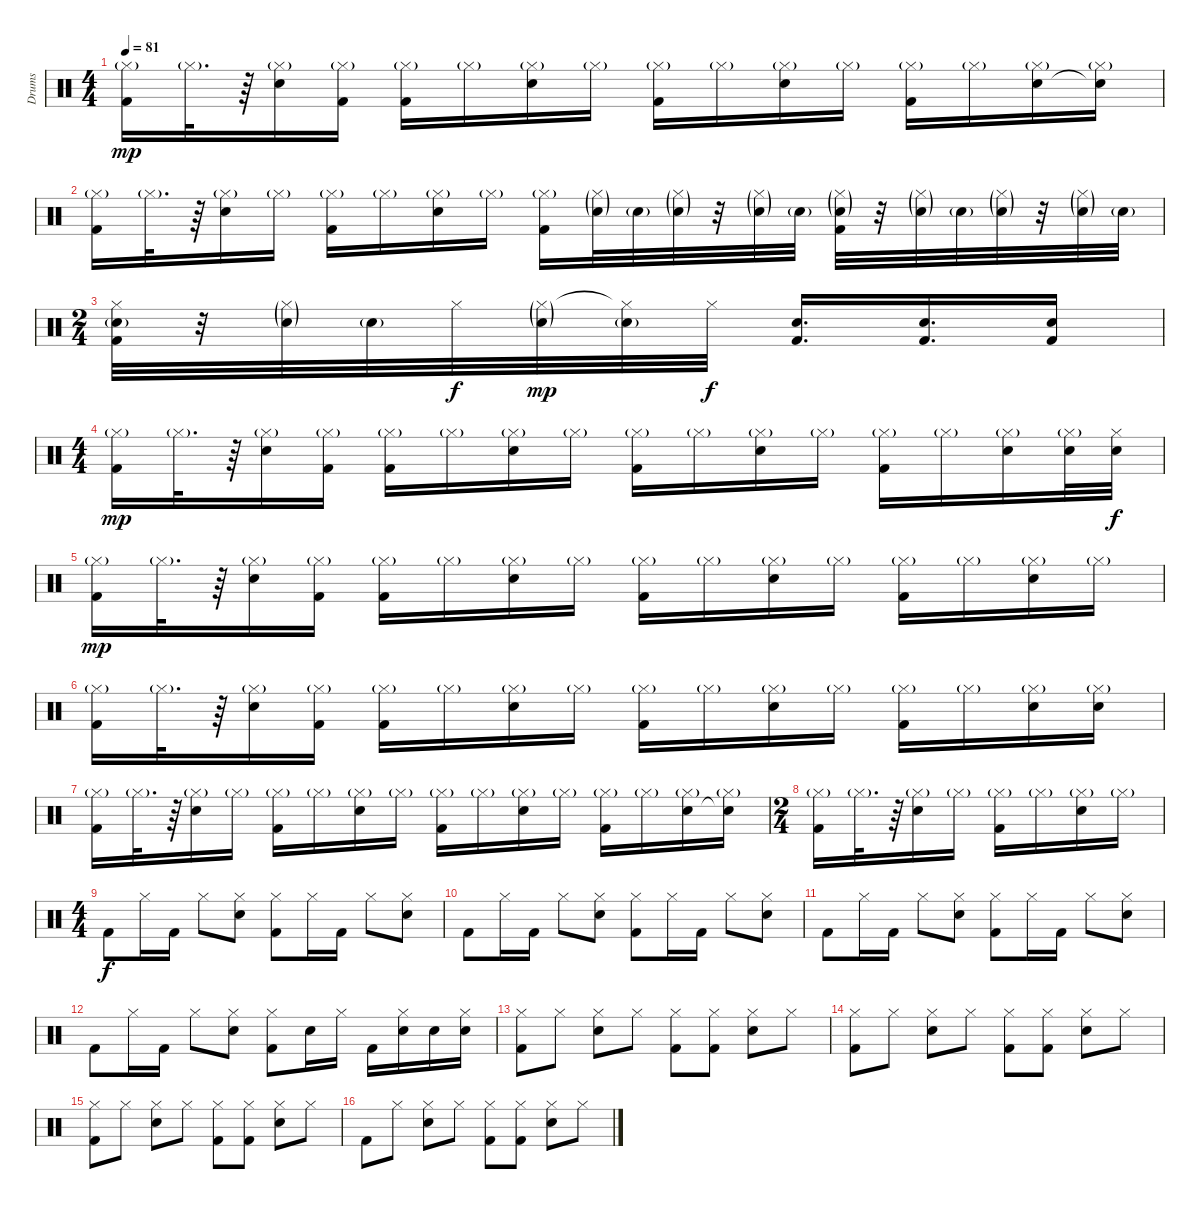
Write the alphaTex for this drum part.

\track ("Drums" "Drums") {instrument percussion}
\staff {score}
\articulation defaults
\ts (4 4)
\tempo 81
\clef neutral
\ks c
("Hi-Hat (closed)"{g} "Kick (hit) 2").16{dy mp} "Hi-Hat (closed)"{g}.32{d} r.64 ("Hi-Hat (closed)"{g} "Snare (hit) 2").16 ("Hi-Hat (closed)"{g} "Kick (hit) 2").16 ("Hi-Hat (closed)"{g} "Kick (hit) 2").16 "Hi-Hat (closed)"{g}.16 ("Hi-Hat (closed)"{g} "Snare (hit) 2").16 "Hi-Hat (closed)"{g}.16 ("Hi-Hat (closed)"{g} "Kick (hit) 2").16 "Hi-Hat (closed)"{g}.16 ("Hi-Hat (closed)"{g} "Snare (hit) 2").16 "Hi-Hat (closed)"{g}.16 ("Hi-Hat (closed)"{g} "Kick (hit) 2").16 "Hi-Hat (closed)"{g}.16 ("Hi-Hat (closed)"{g} "Snare (hit) 2").16 ("Hi-Hat (closed)"{g} "Snare (hit)"{t}).16 |
("Hi-Hat (closed)"{g} "Kick (hit) 2").16 "Hi-Hat (closed)"{g}.32{d} r.64 ("Hi-Hat (closed)"{g} "Snare (hit) 2").16 "Hi-Hat (closed)"{g}.16 ("Hi-Hat (closed)"{g} "Kick (hit) 2").16 "Hi-Hat (closed)"{g}.16 ("Hi-Hat (closed)"{g} "Snare (hit) 2").16 "Hi-Hat (closed)"{g}.16 ("Hi-Hat (closed)"{g} "Kick (hit) 2").16 ("Hi-Hat (closed)"{g} "Snare (hit) 2"{g}).32 "Snare (hit) 2"{g}.32 ("Hi-Hat (closed)"{g} "Snare (hit) 2"{g}).32 r.32 ("Hi-Hat (closed)"{g} "Snare (hit) 2"{g}).32 "Snare (hit) 2"{g}.32 ("Hi-Hat (closed)"{g} "Snare (hit) 2"{g} "Kick (hit) 2").32 r.32 ("Hi-Hat (closed)"{g} "Snare (hit) 2"{g}).32 "Snare (hit) 2"{g}.32 ("Hi-Hat (closed)"{g} "Snare (hit) 2"{g}).32 r.32 ("Hi-Hat (closed)"{g} "Snare (hit) 2"{g}).32 "Snare (hit) 2"{g}.32 |
\ts (2 4)
("Hi-Hat (closed)" "Snare (hit) 2"{g} "Kick (hit) 2").32 r.32 ("Hi-Hat (closed)"{g} "Snare (hit) 2"{g}).32 "Snare (hit) 2"{g}.32 "Hi-Hat (closed)".32{dy f} ("Hi-Hat (closed)"{g} "Snare (hit) 2"{g}).32{dy mp} ("Hi-Hat (closed)"{t} "Snare (hit) 2"{g}).32 "Hi-Hat (closed)".32{dy f} ("Snare (hit) 2" "Kick (hit) 2").16{d} ("Snare (hit) 2" "Kick (hit) 2").16{d} ("Snare (hit) 2" "Kick (hit) 2").16 |
\ts (4 4)
("Hi-Hat (closed)"{g} "Kick (hit) 2").16{dy mp} "Hi-Hat (closed)"{g}.32{d} r.64 ("Hi-Hat (closed)"{g} "Snare (hit) 2").16 ("Hi-Hat (closed)"{g} "Kick (hit) 2").16 ("Hi-Hat (closed)"{g} "Kick (hit) 2").16 "Hi-Hat (closed)"{g}.16 ("Hi-Hat (closed)"{g} "Snare (hit) 2").16 "Hi-Hat (closed)"{g}.16 ("Hi-Hat (closed)"{g} "Kick (hit) 2").16 "Hi-Hat (closed)"{g}.16 ("Hi-Hat (closed)"{g} "Snare (hit) 2").16 "Hi-Hat (closed)"{g}.16 ("Hi-Hat (closed)"{g} "Kick (hit) 2").16 "Hi-Hat (closed)"{g}.16 ("Hi-Hat (closed)"{g} "Snare (hit) 2").16 ("Hi-Hat (closed)"{g} "Snare (hit) 2").32 ("Hi-Hat (closed)" "Snare (hit) 2").32{dy f} |
("Hi-Hat (closed)"{g} "Kick (hit) 2").16{dy mp} "Hi-Hat (closed)"{g}.32{d} r.64 ("Hi-Hat (closed)"{g} "Snare (hit) 2").16 ("Hi-Hat (closed)"{g} "Kick (hit) 2").16 ("Hi-Hat (closed)"{g} "Kick (hit) 2").16 "Hi-Hat (closed)"{g}.16 ("Hi-Hat (closed)"{g} "Snare (hit) 2").16 "Hi-Hat (closed)"{g}.16 ("Hi-Hat (closed)"{g} "Kick (hit) 2").16 "Hi-Hat (closed)"{g}.16 ("Hi-Hat (closed)"{g} "Snare (hit) 2").16 "Hi-Hat (closed)"{g}.16 ("Hi-Hat (closed)"{g} "Kick (hit) 2").16 "Hi-Hat (closed)"{g}.16 ("Hi-Hat (closed)"{g} "Snare (hit) 2").16 "Hi-Hat (closed)"{g}.16 |
("Hi-Hat (closed)"{g} "Kick (hit) 2").16 "Hi-Hat (closed)"{g}.32{d} r.64 ("Hi-Hat (closed)"{g} "Snare (hit) 2").16 ("Hi-Hat (closed)"{g} "Kick (hit) 2").16 ("Hi-Hat (closed)"{g} "Kick (hit) 2").16 "Hi-Hat (closed)"{g}.16 ("Hi-Hat (closed)"{g} "Snare (hit) 2").16 "Hi-Hat (closed)"{g}.16 ("Hi-Hat (closed)"{g} "Kick (hit) 2").16 "Hi-Hat (closed)"{g}.16 ("Hi-Hat (closed)"{g} "Snare (hit) 2").16 "Hi-Hat (closed)"{g}.16 ("Hi-Hat (closed)"{g} "Kick (hit) 2").16 "Hi-Hat (closed)"{g}.16 ("Hi-Hat (closed)"{g} "Snare (hit) 2").16 ("Hi-Hat (closed)"{g} "Snare (hit) 2").16 |
("Hi-Hat (closed)"{g} "Kick (hit) 2").16 "Hi-Hat (closed)"{g}.32{d} r.64 ("Hi-Hat (closed)"{g} "Snare (hit) 2").16 "Hi-Hat (closed)"{g}.16 ("Hi-Hat (closed)"{g} "Kick (hit) 2").16 "Hi-Hat (closed)"{g}.16 ("Hi-Hat (closed)"{g} "Snare (hit) 2").16 "Hi-Hat (closed)"{g}.16 ("Hi-Hat (closed)"{g} "Kick (hit) 2").16 "Hi-Hat (closed)"{g}.16 ("Hi-Hat (closed)"{g} "Snare (hit) 2").16 "Hi-Hat (closed)"{g}.16 ("Hi-Hat (closed)"{g} "Kick (hit) 2").16 "Hi-Hat (closed)"{g}.16 ("Hi-Hat (closed)"{g} "Snare (hit) 2").16 ("Hi-Hat (closed)"{g} "Snare (hit)"{t}).16 |
\ts (2 4)
("Hi-Hat (closed)"{g} "Kick (hit) 2").16 "Hi-Hat (closed)"{g}.32{d} r.64 ("Hi-Hat (closed)"{g} "Snare (hit) 2").16 "Hi-Hat (closed)"{g}.16 ("Hi-Hat (closed)"{g} "Kick (hit) 2").16 "Hi-Hat (closed)"{g}.16 ("Hi-Hat (closed)"{g} "Snare (hit) 2").16 "Hi-Hat (closed)"{g}.16 |
\ts (4 4)
"Kick (hit) 2".8{dy f} "Hi-Hat (closed)".16 "Kick (hit) 2".16 "Hi-Hat (closed)".8 ("Hi-Hat (closed)" "Snare (hit) 2").8 ("Hi-Hat (closed)" "Kick (hit) 2").8 "Hi-Hat (closed)".16 "Kick (hit) 2".16 "Hi-Hat (closed)".8 ("Hi-Hat (closed)" "Snare (hit) 2").8 |
"Kick (hit) 2".8 "Hi-Hat (closed)".16 "Kick (hit) 2".16 "Hi-Hat (closed)".8 ("Hi-Hat (closed)" "Snare (hit) 2").8 ("Hi-Hat (closed)" "Kick (hit) 2").8 "Hi-Hat (closed)".16 "Kick (hit) 2".16 "Hi-Hat (closed)".8 ("Hi-Hat (closed)" "Snare (hit) 2").8 |
"Kick (hit) 2".8 "Hi-Hat (closed)".16 "Kick (hit) 2".16 "Hi-Hat (closed)".8 ("Hi-Hat (closed)" "Snare (hit) 2").8 ("Hi-Hat (closed)" "Kick (hit) 2").8 "Hi-Hat (closed)".16 "Kick (hit) 2".16 "Hi-Hat (closed)".8 ("Hi-Hat (closed)" "Snare (hit) 2").8 |
"Kick (hit) 2".8 "Hi-Hat (closed)".16 "Kick (hit) 2".16 "Hi-Hat (closed)".8 ("Hi-Hat (closed)" "Snare (hit) 2").8 ("Hi-Hat (closed)" "Kick (hit) 2").8 "Snare (hit) 2".16 "Hi-Hat (closed)".16 "Kick (hit) 2".16 ("Hi-Hat (closed)" "Snare (hit) 2").16 "Snare (hit) 2".16 ("Hi-Hat (closed)" "Snare (hit) 2").16 |
("Hi-Hat (closed)" "Kick (hit) 2").8 "Hi-Hat (closed)".8 ("Hi-Hat (closed)" "Snare (hit) 2").8 "Hi-Hat (closed)".8 ("Hi-Hat (closed)" "Kick (hit) 2").8 ("Hi-Hat (closed)" "Kick (hit) 2").8 ("Hi-Hat (closed)" "Snare (hit) 2").8 "Hi-Hat (closed)".8 |
("Hi-Hat (closed)" "Kick (hit) 2").8 "Hi-Hat (closed)".8 ("Hi-Hat (closed)" "Snare (hit) 2").8 "Hi-Hat (closed)".8 ("Hi-Hat (closed)" "Kick (hit) 2").8 ("Hi-Hat (closed)" "Kick (hit) 2").8 ("Hi-Hat (closed)" "Snare (hit) 2").8 "Hi-Hat (closed)".8 |
("Hi-Hat (closed)" "Kick (hit) 2").8 "Hi-Hat (closed)".8 ("Hi-Hat (closed)" "Snare (hit) 2").8 "Hi-Hat (closed)".8 ("Hi-Hat (closed)" "Kick (hit) 2").8 ("Hi-Hat (closed)" "Kick (hit) 2").8 ("Hi-Hat (closed)" "Snare (hit) 2").8 "Hi-Hat (closed)".8 |
"Kick (hit) 2".8 "Hi-Hat (closed)".8 ("Hi-Hat (closed)" "Snare (hit) 2").8 "Hi-Hat (closed)".8 ("Hi-Hat (closed)" "Kick (hit) 2").8 ("Hi-Hat (closed)" "Kick (hit) 2").8 ("Hi-Hat (closed)" "Snare (hit) 2").8 "Hi-Hat (closed)".8
